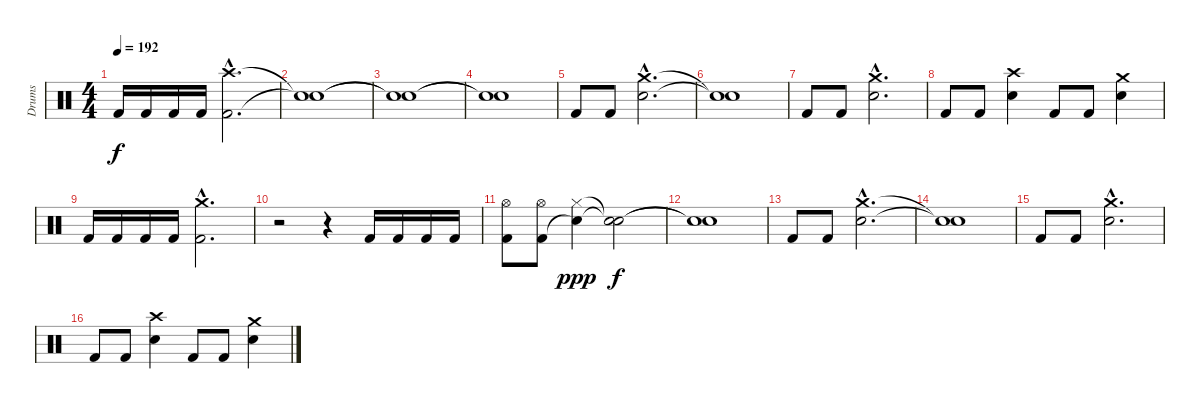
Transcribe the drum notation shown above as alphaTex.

\track ("Drums" "Drums") {instrument percussion}
\staff {score}
\articulation defaults
\ts (4 4)
\tempo 192
\clef neutral
\ks c "Kick (hit) 2".16{dy f} "Kick (hit) 2".16 "Kick (hit) 2".16 "Kick (hit) 2".16
("Kick (hit) 2"{hac} "Crash high (hit)"{hac}).2{d} |
("Snare (hit)"{t} "Snare (hit)"{t}).1 |
("Snare (hit)"{t} "Snare (hit)"{t}).1 |
("Snare (hit)"{t} "Snare (hit)"{t}).1 |
"Kick (hit) 2".8 "Kick (hit) 2".8 ("Electric Snare (hit)"{hac} "Crash medium (hit)"{hac}).2{d} |
("Snare (hit)"{t} "Snare (hit)"{t}).1 |
"Kick (hit) 2".8 "Kick (hit) 2".8 ("Electric Snare (hit)"{hac} "Crash medium (hit)"{hac}).2{d} |
"Kick (hit) 2".8 "Kick (hit) 2".8 ("Electric Snare (hit)" "Crash high (hit)").4 "Kick (hit) 2".8 "Kick (hit) 2".8 ("Electric Snare (hit)" "Crash medium (hit)").4 |
"Kick (hit) 2".16 "Kick (hit) 2".16 "Kick (hit) 2".16 "Kick (hit) 2".16 ("Kick (hit) 2"{hac} "Crash medium (hit)"{hac}).2{d} |
r.2 r.4 "Kick (hit) 2".16 "Kick (hit) 2".16 "Kick (hit) 2".16 "Kick (hit) 2".16 |
("Kick (hit) 2" "Hi-Hat (open)").8 ("Kick (hit) 2" "Hi-Hat (open)").8 ("Snare (hit)"{t} "Hi-Hat (closed)").4{dy ppp} ("Snare (hit)"{t} "Snare (hit)"{t}).2{dy f} |
("Snare (hit)"{t} "Snare (hit)"{t}).1 |
"Kick (hit) 2".8 "Kick (hit) 2".8 ("Electric Snare (hit)"{hac} "Crash medium (hit)"{hac}).2{d} |
("Snare (hit)"{t} "Snare (hit)"{t}).1 |
"Kick (hit) 2".8 "Kick (hit) 2".8 ("Electric Snare (hit)"{hac} "Crash medium (hit)"{hac}).2{d} |
"Kick (hit) 2".8 "Kick (hit) 2".8 ("Electric Snare (hit)" "Crash high (hit)").4 "Kick (hit) 2".8 "Kick (hit) 2".8 ("Electric Snare (hit)" "Crash medium (hit)").4
